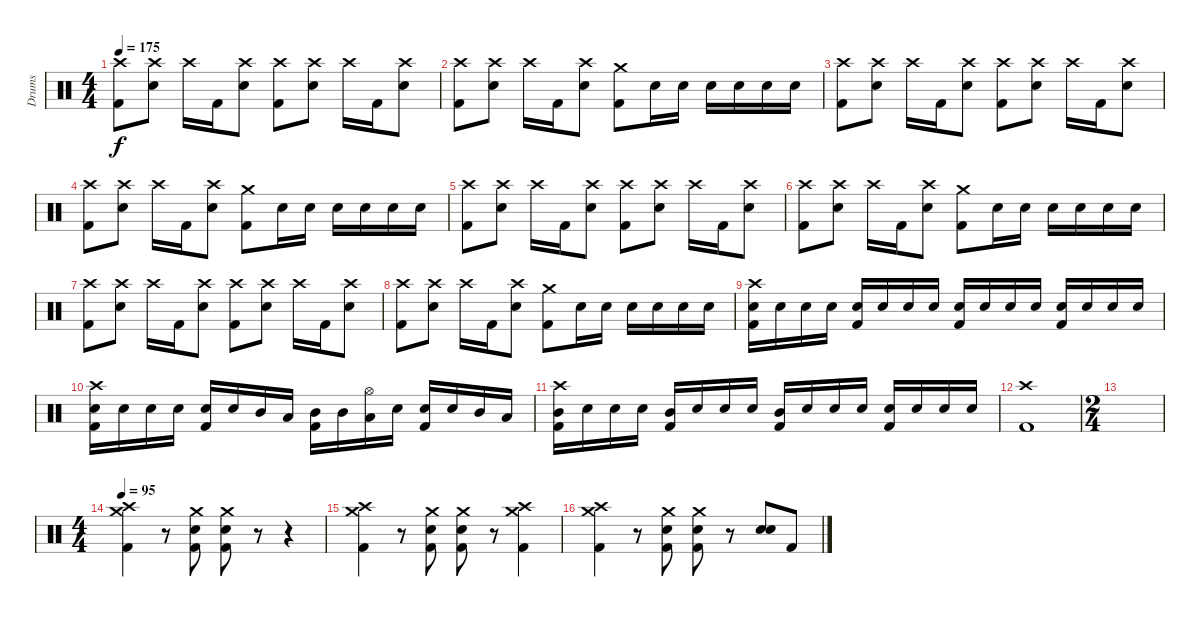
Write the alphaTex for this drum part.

\track ("Drums" "Drums") {instrument percussion}
\staff {score}
\articulation defaults
\ts (4 4)
\tempo 175
\clef neutral
\ks c
("Crash high (hit)" "Kick (hit) 2").8{dy f} ("Crash high (hit)" "Electric Snare (hit)").8 "Crash high (hit)".16 "Kick (hit) 2".16 ("Crash high (hit)" "Electric Snare (hit)").8 ("Crash high (hit)" "Kick (hit) 2").8 ("Crash high (hit)" "Electric Snare (hit)").8 "Crash high (hit)".16 "Kick (hit) 2".16 ("Crash high (hit)" "Electric Snare (hit)").8 |
("Crash high (hit)" "Kick (hit) 2").8 ("Crash high (hit)" "Electric Snare (hit)").8 "Crash high (hit)".16 "Kick (hit) 2".16 ("Crash high (hit)" "Electric Snare (hit)").8 ("Crash medium (hit)" "Kick (hit) 2").8 "Electric Snare (hit)".16 "Electric Snare (hit)".16 "Electric Snare (hit)".16 "Electric Snare (hit)".16 "Electric Snare (hit)".16 "Electric Snare (hit)".16 |
("Crash high (hit)" "Kick (hit) 2").8 ("Crash high (hit)" "Electric Snare (hit)").8 "Crash high (hit)".16 "Kick (hit) 2".16 ("Crash high (hit)" "Electric Snare (hit)").8 ("Crash high (hit)" "Kick (hit) 2").8 ("Crash high (hit)" "Electric Snare (hit)").8 "Crash high (hit)".16 "Kick (hit) 2".16 ("Crash high (hit)" "Electric Snare (hit)").8 |
("Crash high (hit)" "Kick (hit) 2").8 ("Crash high (hit)" "Electric Snare (hit)").8 "Crash high (hit)".16 "Kick (hit) 2".16 ("Crash high (hit)" "Electric Snare (hit)").8 ("Crash medium (hit)" "Kick (hit) 2").8 "Electric Snare (hit)".16 "Electric Snare (hit)".16 "Electric Snare (hit)".16 "Electric Snare (hit)".16 "Electric Snare (hit)".16 "Electric Snare (hit)".16 |
("Crash high (hit)" "Kick (hit) 2").8 ("Crash high (hit)" "Electric Snare (hit)").8 "Crash high (hit)".16 "Kick (hit) 2".16 ("Crash high (hit)" "Electric Snare (hit)").8 ("Crash high (hit)" "Kick (hit) 2").8 ("Crash high (hit)" "Electric Snare (hit)").8 "Crash high (hit)".16 "Kick (hit) 2".16 ("Crash high (hit)" "Electric Snare (hit)").8 |
("Crash high (hit)" "Kick (hit) 2").8 ("Crash high (hit)" "Electric Snare (hit)").8 "Crash high (hit)".16 "Kick (hit) 2".16 ("Crash high (hit)" "Electric Snare (hit)").8 ("Crash medium (hit)" "Kick (hit) 2").8 "Electric Snare (hit)".16 "Electric Snare (hit)".16 "Electric Snare (hit)".16 "Electric Snare (hit)".16 "Electric Snare (hit)".16 "Electric Snare (hit)".16 |
("Crash high (hit)" "Kick (hit) 2").8 ("Crash high (hit)" "Electric Snare (hit)").8 "Crash high (hit)".16 "Kick (hit) 2".16 ("Crash high (hit)" "Electric Snare (hit)").8 ("Crash high (hit)" "Kick (hit) 2").8 ("Crash high (hit)" "Electric Snare (hit)").8 "Crash high (hit)".16 "Kick (hit) 2".16 ("Crash high (hit)" "Electric Snare (hit)").8 |
("Crash high (hit)" "Kick (hit) 2").8 ("Crash high (hit)" "Electric Snare (hit)").8 "Crash high (hit)".16 "Kick (hit) 2".16 ("Crash high (hit)" "Electric Snare (hit)").8 ("Crash medium (hit)" "Kick (hit) 2").8 "Electric Snare (hit)".16 "Electric Snare (hit)".16 "Electric Snare (hit)".16 "Electric Snare (hit)".16 "Electric Snare (hit)".16 "Electric Snare (hit)".16 |
("Crash high (hit)" "Electric Snare (hit)" "Kick (hit) 2").16 "Electric Snare (hit)".16 "Electric Snare (hit)".16 "Electric Snare (hit)".16 ("Electric Snare (hit)" "Kick (hit) 2").16 "Electric Snare (hit)".16 "Electric Snare (hit)".16 "Electric Snare (hit)".16 ("Electric Snare (hit)" "Kick (hit) 2").16 "Electric Snare (hit)".16 "Electric Snare (hit)".16 "Electric Snare (hit)".16 ("Electric Snare (hit)" "Kick (hit) 2").16 "Electric Snare (hit)".16 "Electric Snare (hit)".16 "Electric Snare (hit)".16 |
("Crash high (hit)" "Electric Snare (hit)" "Kick (hit) 2").16 "Electric Snare (hit)".16 "Electric Snare (hit)".16 "Electric Snare (hit)".16 ("Electric Snare (hit)" "Kick (hit) 2").16 "Electric Snare (hit)".16 "Mid Tom (hit)".16 "Low Floor Tom (hit)".16 ("Mid Tom (hit)" "Kick (hit) 2").16 "Mid Tom (hit)".16 ("Hi-Hat (open)" "Low Floor Tom (hit)").16 "Electric Snare (hit)".16 ("Electric Snare (hit)" "Kick (hit) 2").16 "Electric Snare (hit)".16 "Mid Tom (hit)".16 "Low Floor Tom (hit)".16 |
("Crash high (hit)" "Mid Tom (hit)" "Kick (hit) 2").16 "Electric Snare (hit)".16 "Electric Snare (hit)".16 "Electric Snare (hit)".16 ("Mid Tom (hit)" "Kick (hit) 2").16 "Electric Snare (hit)".16 "Electric Snare (hit)".16 "Electric Snare (hit)".16 ("Mid Tom (hit)" "Kick (hit) 2").16 "Electric Snare (hit)".16 "Electric Snare (hit)".16 "Electric Snare (hit)".16 ("Electric Snare (hit)" "Kick (hit) 2").16 "Electric Snare (hit)".16 "Electric Snare (hit)".16 "Electric Snare (hit)".16 |
("Crash high (hit)" "Kick (hit) 2").1 |
\ts (2 4)
|
\ts (4 4)
\tempo 95
("Crash high (hit)" "Crash medium (hit)" "Kick (hit) 2").4 r.8 ("Crash medium (hit)" "Electric Snare (hit)" "Kick (hit) 2").8 ("Crash medium (hit)" "Electric Snare (hit)" "Kick (hit) 2").8 r.8 r.4 |
("Crash high (hit)" "Crash medium (hit)" "Kick (hit) 2").4 r.8 ("Crash medium (hit)" "Electric Snare (hit)" "Kick (hit) 2").8 ("Crash medium (hit)" "Electric Snare (hit)" "Kick (hit) 2").8 r.8 ("Crash high (hit)" "Crash medium (hit)" "Kick (hit) 2").4 |
("Crash high (hit)" "Crash medium (hit)" "Kick (hit) 2").4 r.8 ("Crash medium (hit)" "Electric Snare (hit)" "Kick (hit) 2").8 ("Crash medium (hit)" "Electric Snare (hit)" "Kick (hit) 2").8 r.8 ("Electric Snare (hit)" "Electric Snare (hit)").8{bu 240} "Kick (hit) 2".8
